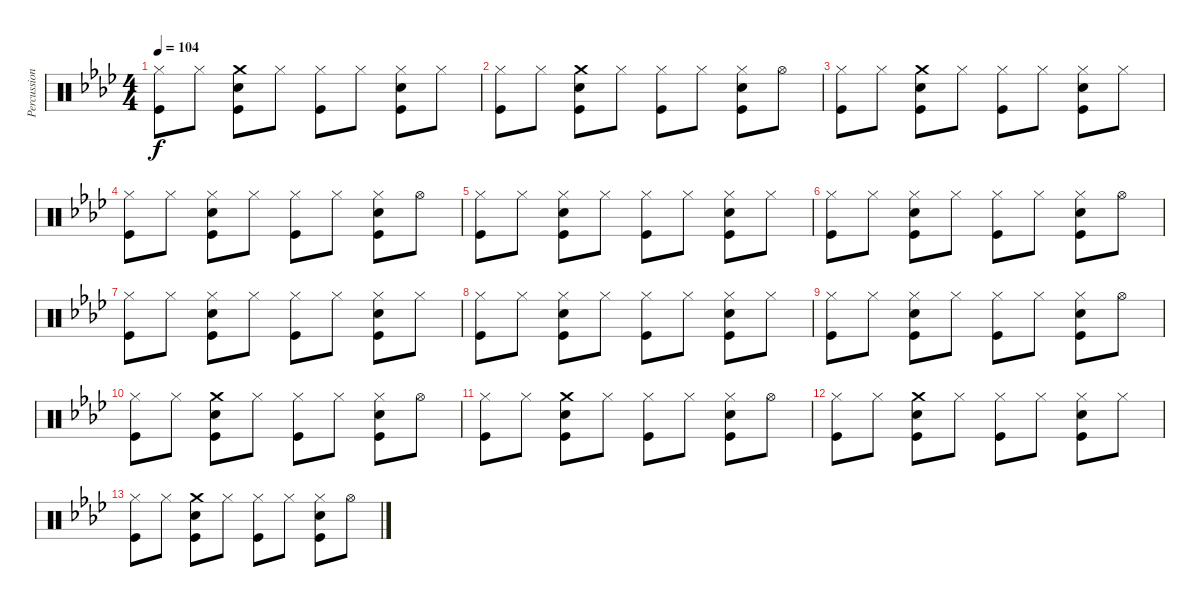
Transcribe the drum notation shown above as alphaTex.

\track ("Percussion" "Percussion") {instrument percussion}
\staff {score}
\articulation defaults
\ts (4 4)
\tempo 104
\clef neutral
\ks ab
("Hi-Hat (closed)" "Kick (hit)").8{dy f} "Hi-Hat (closed)".8 ("Crash medium (hit)" "Snare (hit) 2" "Kick (hit)").8 "Hi-Hat (closed)".8 ("Hi-Hat (closed)" "Kick (hit)").8 "Hi-Hat (closed)".8 ("Hi-Hat (closed)" "Snare (hit) 2" "Kick (hit)").8 "Hi-Hat (closed)".8 |
("Hi-Hat (closed)" "Kick (hit)").8 "Hi-Hat (closed)".8 ("Crash medium (hit)" "Snare (hit) 2" "Kick (hit)").8 "Hi-Hat (closed)".8 ("Hi-Hat (closed)" "Kick (hit)").8 "Hi-Hat (closed)".8 ("Hi-Hat (closed)" "Snare (hit) 2" "Kick (hit)").8 "Hi-Hat (open)".8 |
("Hi-Hat (closed)" "Kick (hit)").8 "Hi-Hat (closed)".8 ("Crash medium (hit)" "Snare (hit) 2" "Kick (hit)").8 "Hi-Hat (closed)".8 ("Hi-Hat (closed)" "Kick (hit)").8 "Hi-Hat (closed)".8 ("Hi-Hat (closed)" "Snare (hit) 2" "Kick (hit)").8 "Hi-Hat (closed)".8 |
("Hi-Hat (closed)" "Kick (hit)").8 "Hi-Hat (closed)".8 ("Hi-Hat (closed)" "Snare (hit) 2" "Kick (hit)").8 "Hi-Hat (closed)".8 ("Hi-Hat (closed)" "Kick (hit)").8 "Hi-Hat (closed)".8 ("Hi-Hat (closed)" "Snare (hit) 2" "Kick (hit)").8 "Hi-Hat (open)".8 |
("Hi-Hat (closed)" "Kick (hit)").8 "Hi-Hat (closed)".8 ("Hi-Hat (closed)" "Snare (hit) 2" "Kick (hit)").8 "Hi-Hat (closed)".8 ("Hi-Hat (closed)" "Kick (hit)").8 "Hi-Hat (closed)".8 ("Hi-Hat (closed)" "Snare (hit) 2" "Kick (hit)").8 "Hi-Hat (closed)".8 |
("Hi-Hat (closed)" "Kick (hit)").8 "Hi-Hat (closed)".8 ("Hi-Hat (closed)" "Snare (hit) 2" "Kick (hit)").8 "Hi-Hat (closed)".8 ("Hi-Hat (closed)" "Kick (hit)").8 "Hi-Hat (closed)".8 ("Hi-Hat (closed)" "Snare (hit) 2" "Kick (hit)").8 "Hi-Hat (open)".8 |
("Hi-Hat (closed)" "Kick (hit)").8 "Hi-Hat (closed)".8 ("Hi-Hat (closed)" "Snare (hit) 2" "Kick (hit)").8 "Hi-Hat (closed)".8 ("Hi-Hat (closed)" "Kick (hit)").8 "Hi-Hat (closed)".8 ("Hi-Hat (closed)" "Snare (hit) 2" "Kick (hit)").8 "Hi-Hat (closed)".8 |
("Hi-Hat (closed)" "Kick (hit)").8 "Hi-Hat (closed)".8 ("Hi-Hat (closed)" "Snare (hit) 2" "Kick (hit)").8 "Hi-Hat (closed)".8 ("Hi-Hat (closed)" "Kick (hit)").8 "Hi-Hat (closed)".8 ("Hi-Hat (closed)" "Snare (hit) 2" "Kick (hit)").8 "Hi-Hat (closed)".8 |
("Hi-Hat (closed)" "Kick (hit)").8 "Hi-Hat (closed)".8 ("Hi-Hat (closed)" "Snare (hit) 2" "Kick (hit)").8 "Hi-Hat (closed)".8 ("Hi-Hat (closed)" "Kick (hit)").8 "Hi-Hat (closed)".8 ("Hi-Hat (closed)" "Snare (hit) 2" "Kick (hit)").8 "Hi-Hat (open)".8 |
("Hi-Hat (closed)" "Kick (hit)").8 "Hi-Hat (closed)".8 ("Crash medium (hit)" "Snare (hit) 2" "Kick (hit)").8 "Hi-Hat (closed)".8 ("Hi-Hat (closed)" "Kick (hit)").8 "Hi-Hat (closed)".8 ("Hi-Hat (closed)" "Snare (hit) 2" "Kick (hit)").8 "Hi-Hat (open)".8 |
("Hi-Hat (closed)" "Kick (hit)").8 "Hi-Hat (closed)".8 ("Crash medium (hit)" "Snare (hit) 2" "Kick (hit)").8 "Hi-Hat (closed)".8 ("Hi-Hat (closed)" "Kick (hit)").8 "Hi-Hat (closed)".8 ("Hi-Hat (closed)" "Snare (hit) 2" "Kick (hit)").8 "Hi-Hat (open)".8 |
("Hi-Hat (closed)" "Kick (hit)").8 "Hi-Hat (closed)".8 ("Crash medium (hit)" "Snare (hit) 2" "Kick (hit)").8 "Hi-Hat (closed)".8 ("Hi-Hat (closed)" "Kick (hit)").8 "Hi-Hat (closed)".8 ("Hi-Hat (closed)" "Snare (hit) 2" "Kick (hit)").8 "Hi-Hat (closed)".8 |
("Hi-Hat (closed)" "Kick (hit)").8 "Hi-Hat (closed)".8 ("Crash medium (hit)" "Snare (hit) 2" "Kick (hit)").8 "Hi-Hat (closed)".8 ("Hi-Hat (closed)" "Kick (hit)").8 "Hi-Hat (closed)".8 ("Hi-Hat (closed)" "Snare (hit) 2" "Kick (hit)").8 "Hi-Hat (open)".8
